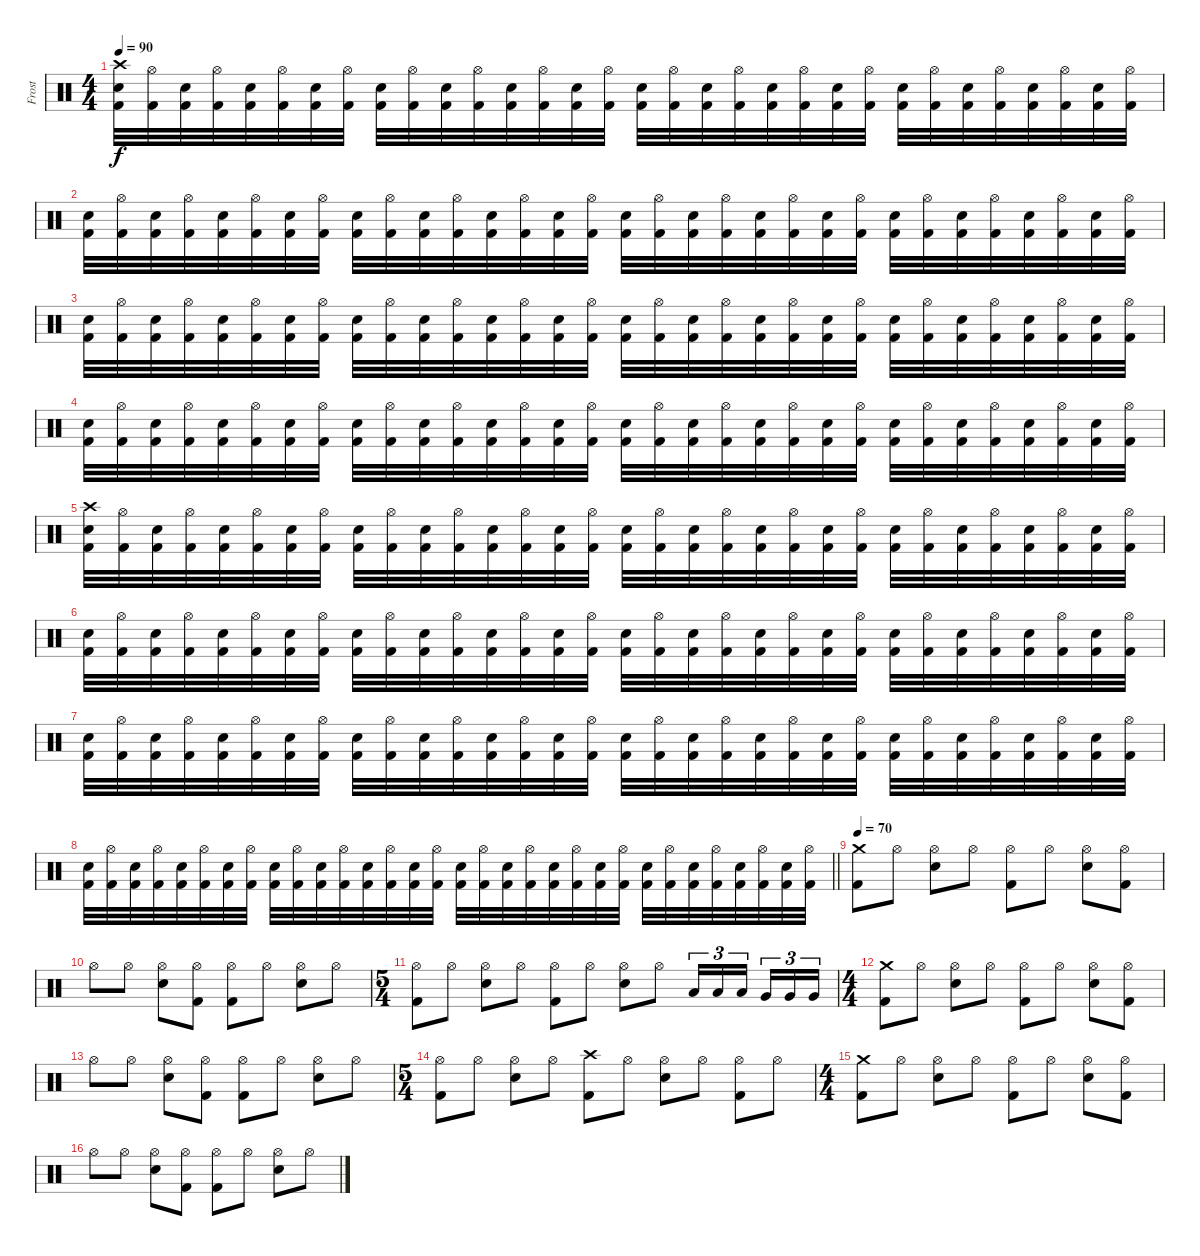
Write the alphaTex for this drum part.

\track ("Frost" "Frost") {instrument percussion}
\staff {score}
\articulation defaults
\ts (4 4)
\section ("" "")
\tempo 90
\clef neutral
\ks c
("Crash high (hit)" "Electric Snare (hit)" "Kick (hit) 2").32{dy f} ("Hi-Hat (open)" "Kick (hit) 2").32 ("Electric Snare (hit)" "Kick (hit) 2").32 ("Hi-Hat (open)" "Kick (hit) 2").32 ("Electric Snare (hit)" "Kick (hit) 2").32 ("Hi-Hat (open)" "Kick (hit) 2").32 ("Electric Snare (hit)" "Kick (hit) 2").32 ("Hi-Hat (open)" "Kick (hit) 2").32 ("Electric Snare (hit)" "Kick (hit) 2").32 ("Hi-Hat (open)" "Kick (hit) 2").32 ("Electric Snare (hit)" "Kick (hit) 2").32 ("Hi-Hat (open)" "Kick (hit) 2").32 ("Electric Snare (hit)" "Kick (hit) 2").32 ("Hi-Hat (open)" "Kick (hit) 2").32 ("Electric Snare (hit)" "Kick (hit) 2").32 ("Hi-Hat (open)" "Kick (hit) 2").32 ("Electric Snare (hit)" "Kick (hit) 2").32 ("Hi-Hat (open)" "Kick (hit) 2").32 ("Electric Snare (hit)" "Kick (hit) 2").32 ("Hi-Hat (open)" "Kick (hit) 2").32 ("Electric Snare (hit)" "Kick (hit) 2").32 ("Hi-Hat (open)" "Kick (hit) 2").32 ("Electric Snare (hit)" "Kick (hit) 2").32 ("Hi-Hat (open)" "Kick (hit) 2").32 ("Electric Snare (hit)" "Kick (hit) 2").32 ("Hi-Hat (open)" "Kick (hit) 2").32 ("Electric Snare (hit)" "Kick (hit) 2").32 ("Hi-Hat (open)" "Kick (hit) 2").32 ("Electric Snare (hit)" "Kick (hit) 2").32 ("Hi-Hat (open)" "Kick (hit) 2").32 ("Electric Snare (hit)" "Kick (hit) 2").32 ("Hi-Hat (open)" "Kick (hit) 2").32 |
("Electric Snare (hit)" "Kick (hit) 2").32 ("Hi-Hat (open)" "Kick (hit) 2").32 ("Electric Snare (hit)" "Kick (hit) 2").32 ("Hi-Hat (open)" "Kick (hit) 2").32 ("Electric Snare (hit)" "Kick (hit) 2").32 ("Hi-Hat (open)" "Kick (hit) 2").32 ("Electric Snare (hit)" "Kick (hit) 2").32 ("Hi-Hat (open)" "Kick (hit) 2").32 ("Electric Snare (hit)" "Kick (hit) 2").32 ("Hi-Hat (open)" "Kick (hit) 2").32 ("Electric Snare (hit)" "Kick (hit) 2").32 ("Hi-Hat (open)" "Kick (hit) 2").32 ("Electric Snare (hit)" "Kick (hit) 2").32 ("Hi-Hat (open)" "Kick (hit) 2").32 ("Electric Snare (hit)" "Kick (hit) 2").32 ("Hi-Hat (open)" "Kick (hit) 2").32 ("Electric Snare (hit)" "Kick (hit) 2").32 ("Hi-Hat (open)" "Kick (hit) 2").32 ("Electric Snare (hit)" "Kick (hit) 2").32 ("Hi-Hat (open)" "Kick (hit) 2").32 ("Electric Snare (hit)" "Kick (hit) 2").32 ("Hi-Hat (open)" "Kick (hit) 2").32 ("Electric Snare (hit)" "Kick (hit) 2").32 ("Hi-Hat (open)" "Kick (hit) 2").32 ("Electric Snare (hit)" "Kick (hit) 2").32 ("Hi-Hat (open)" "Kick (hit) 2").32 ("Electric Snare (hit)" "Kick (hit) 2").32 ("Hi-Hat (open)" "Kick (hit) 2").32 ("Electric Snare (hit)" "Kick (hit) 2").32 ("Hi-Hat (open)" "Kick (hit) 2").32 ("Electric Snare (hit)" "Kick (hit) 2").32 ("Hi-Hat (open)" "Kick (hit) 2").32 |
("Electric Snare (hit)" "Kick (hit) 2").32 ("Hi-Hat (open)" "Kick (hit) 2").32 ("Electric Snare (hit)" "Kick (hit) 2").32 ("Hi-Hat (open)" "Kick (hit) 2").32 ("Electric Snare (hit)" "Kick (hit) 2").32 ("Hi-Hat (open)" "Kick (hit) 2").32 ("Electric Snare (hit)" "Kick (hit) 2").32 ("Hi-Hat (open)" "Kick (hit) 2").32 ("Electric Snare (hit)" "Kick (hit) 2").32 ("Hi-Hat (open)" "Kick (hit) 2").32 ("Electric Snare (hit)" "Kick (hit) 2").32 ("Hi-Hat (open)" "Kick (hit) 2").32 ("Electric Snare (hit)" "Kick (hit) 2").32 ("Hi-Hat (open)" "Kick (hit) 2").32 ("Electric Snare (hit)" "Kick (hit) 2").32 ("Hi-Hat (open)" "Kick (hit) 2").32 ("Electric Snare (hit)" "Kick (hit) 2").32 ("Hi-Hat (open)" "Kick (hit) 2").32 ("Electric Snare (hit)" "Kick (hit) 2").32 ("Hi-Hat (open)" "Kick (hit) 2").32 ("Electric Snare (hit)" "Kick (hit) 2").32 ("Hi-Hat (open)" "Kick (hit) 2").32 ("Electric Snare (hit)" "Kick (hit) 2").32 ("Hi-Hat (open)" "Kick (hit) 2").32 ("Electric Snare (hit)" "Kick (hit) 2").32 ("Hi-Hat (open)" "Kick (hit) 2").32 ("Electric Snare (hit)" "Kick (hit) 2").32 ("Hi-Hat (open)" "Kick (hit) 2").32 ("Electric Snare (hit)" "Kick (hit) 2").32 ("Hi-Hat (open)" "Kick (hit) 2").32 ("Electric Snare (hit)" "Kick (hit) 2").32 ("Hi-Hat (open)" "Kick (hit) 2").32 |
("Electric Snare (hit)" "Kick (hit) 2").32 ("Hi-Hat (open)" "Kick (hit) 2").32 ("Electric Snare (hit)" "Kick (hit) 2").32 ("Hi-Hat (open)" "Kick (hit) 2").32 ("Electric Snare (hit)" "Kick (hit) 2").32 ("Hi-Hat (open)" "Kick (hit) 2").32 ("Electric Snare (hit)" "Kick (hit) 2").32 ("Hi-Hat (open)" "Kick (hit) 2").32 ("Electric Snare (hit)" "Kick (hit) 2").32 ("Hi-Hat (open)" "Kick (hit) 2").32 ("Electric Snare (hit)" "Kick (hit) 2").32 ("Hi-Hat (open)" "Kick (hit) 2").32 ("Electric Snare (hit)" "Kick (hit) 2").32 ("Hi-Hat (open)" "Kick (hit) 2").32 ("Electric Snare (hit)" "Kick (hit) 2").32 ("Hi-Hat (open)" "Kick (hit) 2").32 ("Electric Snare (hit)" "Kick (hit) 2").32 ("Hi-Hat (open)" "Kick (hit) 2").32 ("Electric Snare (hit)" "Kick (hit) 2").32 ("Hi-Hat (open)" "Kick (hit) 2").32 ("Electric Snare (hit)" "Kick (hit) 2").32 ("Hi-Hat (open)" "Kick (hit) 2").32 ("Electric Snare (hit)" "Kick (hit) 2").32 ("Hi-Hat (open)" "Kick (hit) 2").32 ("Electric Snare (hit)" "Kick (hit) 2").32 ("Hi-Hat (open)" "Kick (hit) 2").32 ("Electric Snare (hit)" "Kick (hit) 2").32 ("Hi-Hat (open)" "Kick (hit) 2").32 ("Electric Snare (hit)" "Kick (hit) 2").32 ("Hi-Hat (open)" "Kick (hit) 2").32 ("Electric Snare (hit)" "Kick (hit) 2").32 ("Hi-Hat (open)" "Kick (hit) 2").32 |
("Crash high (hit)" "Electric Snare (hit)" "Kick (hit) 2").32 ("Hi-Hat (open)" "Kick (hit) 2").32 ("Electric Snare (hit)" "Kick (hit) 2").32 ("Hi-Hat (open)" "Kick (hit) 2").32 ("Electric Snare (hit)" "Kick (hit) 2").32 ("Hi-Hat (open)" "Kick (hit) 2").32 ("Electric Snare (hit)" "Kick (hit) 2").32 ("Hi-Hat (open)" "Kick (hit) 2").32 ("Electric Snare (hit)" "Kick (hit) 2").32 ("Hi-Hat (open)" "Kick (hit) 2").32 ("Electric Snare (hit)" "Kick (hit) 2").32 ("Hi-Hat (open)" "Kick (hit) 2").32 ("Electric Snare (hit)" "Kick (hit) 2").32 ("Hi-Hat (open)" "Kick (hit) 2").32 ("Electric Snare (hit)" "Kick (hit) 2").32 ("Hi-Hat (open)" "Kick (hit) 2").32 ("Electric Snare (hit)" "Kick (hit) 2").32 ("Hi-Hat (open)" "Kick (hit) 2").32 ("Electric Snare (hit)" "Kick (hit) 2").32 ("Hi-Hat (open)" "Kick (hit) 2").32 ("Electric Snare (hit)" "Kick (hit) 2").32 ("Hi-Hat (open)" "Kick (hit) 2").32 ("Electric Snare (hit)" "Kick (hit) 2").32 ("Hi-Hat (open)" "Kick (hit) 2").32 ("Electric Snare (hit)" "Kick (hit) 2").32 ("Hi-Hat (open)" "Kick (hit) 2").32 ("Electric Snare (hit)" "Kick (hit) 2").32 ("Hi-Hat (open)" "Kick (hit) 2").32 ("Electric Snare (hit)" "Kick (hit) 2").32 ("Hi-Hat (open)" "Kick (hit) 2").32 ("Electric Snare (hit)" "Kick (hit) 2").32 ("Hi-Hat (open)" "Kick (hit) 2").32 |
("Electric Snare (hit)" "Kick (hit) 2").32 ("Hi-Hat (open)" "Kick (hit) 2").32 ("Electric Snare (hit)" "Kick (hit) 2").32 ("Hi-Hat (open)" "Kick (hit) 2").32 ("Electric Snare (hit)" "Kick (hit) 2").32 ("Hi-Hat (open)" "Kick (hit) 2").32 ("Electric Snare (hit)" "Kick (hit) 2").32 ("Hi-Hat (open)" "Kick (hit) 2").32 ("Electric Snare (hit)" "Kick (hit) 2").32 ("Hi-Hat (open)" "Kick (hit) 2").32 ("Electric Snare (hit)" "Kick (hit) 2").32 ("Hi-Hat (open)" "Kick (hit) 2").32 ("Electric Snare (hit)" "Kick (hit) 2").32 ("Hi-Hat (open)" "Kick (hit) 2").32 ("Electric Snare (hit)" "Kick (hit) 2").32 ("Hi-Hat (open)" "Kick (hit) 2").32 ("Electric Snare (hit)" "Kick (hit) 2").32 ("Hi-Hat (open)" "Kick (hit) 2").32 ("Electric Snare (hit)" "Kick (hit) 2").32 ("Hi-Hat (open)" "Kick (hit) 2").32 ("Electric Snare (hit)" "Kick (hit) 2").32 ("Hi-Hat (open)" "Kick (hit) 2").32 ("Electric Snare (hit)" "Kick (hit) 2").32 ("Hi-Hat (open)" "Kick (hit) 2").32 ("Electric Snare (hit)" "Kick (hit) 2").32 ("Hi-Hat (open)" "Kick (hit) 2").32 ("Electric Snare (hit)" "Kick (hit) 2").32 ("Hi-Hat (open)" "Kick (hit) 2").32 ("Electric Snare (hit)" "Kick (hit) 2").32 ("Hi-Hat (open)" "Kick (hit) 2").32 ("Electric Snare (hit)" "Kick (hit) 2").32 ("Hi-Hat (open)" "Kick (hit) 2").32 |
("Electric Snare (hit)" "Kick (hit) 2").32 ("Hi-Hat (open)" "Kick (hit) 2").32 ("Electric Snare (hit)" "Kick (hit) 2").32 ("Hi-Hat (open)" "Kick (hit) 2").32 ("Electric Snare (hit)" "Kick (hit) 2").32 ("Hi-Hat (open)" "Kick (hit) 2").32 ("Electric Snare (hit)" "Kick (hit) 2").32 ("Hi-Hat (open)" "Kick (hit) 2").32 ("Electric Snare (hit)" "Kick (hit) 2").32 ("Hi-Hat (open)" "Kick (hit) 2").32 ("Electric Snare (hit)" "Kick (hit) 2").32 ("Hi-Hat (open)" "Kick (hit) 2").32 ("Electric Snare (hit)" "Kick (hit) 2").32 ("Hi-Hat (open)" "Kick (hit) 2").32 ("Electric Snare (hit)" "Kick (hit) 2").32 ("Hi-Hat (open)" "Kick (hit) 2").32 ("Electric Snare (hit)" "Kick (hit) 2").32 ("Hi-Hat (open)" "Kick (hit) 2").32 ("Electric Snare (hit)" "Kick (hit) 2").32 ("Hi-Hat (open)" "Kick (hit) 2").32 ("Electric Snare (hit)" "Kick (hit) 2").32 ("Hi-Hat (open)" "Kick (hit) 2").32 ("Electric Snare (hit)" "Kick (hit) 2").32 ("Hi-Hat (open)" "Kick (hit) 2").32 ("Electric Snare (hit)" "Kick (hit) 2").32 ("Hi-Hat (open)" "Kick (hit) 2").32 ("Electric Snare (hit)" "Kick (hit) 2").32 ("Hi-Hat (open)" "Kick (hit) 2").32 ("Electric Snare (hit)" "Kick (hit) 2").32 ("Hi-Hat (open)" "Kick (hit) 2").32 ("Electric Snare (hit)" "Kick (hit) 2").32 ("Hi-Hat (open)" "Kick (hit) 2").32 |
\barLineRight lightlight
("Electric Snare (hit)" "Kick (hit) 2").32 ("Hi-Hat (open)" "Kick (hit) 2").32 ("Electric Snare (hit)" "Kick (hit) 2").32 ("Hi-Hat (open)" "Kick (hit) 2").32 ("Electric Snare (hit)" "Kick (hit) 2").32 ("Hi-Hat (open)" "Kick (hit) 2").32 ("Electric Snare (hit)" "Kick (hit) 2").32 ("Hi-Hat (open)" "Kick (hit) 2").32 ("Electric Snare (hit)" "Kick (hit) 2").32 ("Hi-Hat (open)" "Kick (hit) 2").32 ("Electric Snare (hit)" "Kick (hit) 2").32 ("Hi-Hat (open)" "Kick (hit) 2").32 ("Electric Snare (hit)" "Kick (hit) 2").32 ("Hi-Hat (open)" "Kick (hit) 2").32 ("Electric Snare (hit)" "Kick (hit) 2").32 ("Hi-Hat (open)" "Kick (hit) 2").32 ("Electric Snare (hit)" "Kick (hit) 2").32 ("Hi-Hat (open)" "Kick (hit) 2").32 ("Electric Snare (hit)" "Kick (hit) 2").32 ("Hi-Hat (open)" "Kick (hit) 2").32 ("Electric Snare (hit)" "Kick (hit) 2").32 ("Hi-Hat (open)" "Kick (hit) 2").32 ("Electric Snare (hit)" "Kick (hit) 2").32 ("Hi-Hat (open)" "Kick (hit) 2").32 ("Electric Snare (hit)" "Kick (hit) 2").32 ("Hi-Hat (open)" "Kick (hit) 2").32 ("Electric Snare (hit)" "Kick (hit) 2").32 ("Hi-Hat (open)" "Kick (hit) 2").32 ("Electric Snare (hit)" "Kick (hit) 2").32 ("Hi-Hat (open)" "Kick (hit) 2").32 ("Electric Snare (hit)" "Kick (hit) 2").32 ("Hi-Hat (open)" "Kick (hit) 2").32 |
\section ("" "")
\tempo 70
("Crash medium (hit)" "Kick (hit) 2").8 "Hi-Hat (open)".8 ("Hi-Hat (open)" "Electric Snare (hit)").8 "Hi-Hat (open)".8 ("Hi-Hat (open)" "Kick (hit) 2").8 "Hi-Hat (open)".8 ("Hi-Hat (open)" "Electric Snare (hit)").8 ("Hi-Hat (open)" "Kick (hit) 2").8 |
"Hi-Hat (open)".8 "Hi-Hat (open)".8 ("Hi-Hat (open)" "Electric Snare (hit)").8 ("Hi-Hat (open)" "Kick (hit) 2").8 ("Hi-Hat (open)" "Kick (hit) 2").8 "Hi-Hat (open)".8 ("Hi-Hat (open)" "Electric Snare (hit)").8 "Hi-Hat (open)".8 |
\ts (5 4)
("Hi-Hat (open)" "Kick (hit) 2").8 "Hi-Hat (open)".8 ("Hi-Hat (open)" "Electric Snare (hit)").8 "Hi-Hat (open)".8 ("Hi-Hat (open)" "Kick (hit) 2").8 "Hi-Hat (open)".8 ("Hi-Hat (open)" "Electric Snare (hit)").8 "Hi-Hat (open)".8 "Low Tom (hit)".16{tu (3 2)} "Low Tom (hit)".16{tu (3 2)} "Low Tom (hit)".16{tu (3 2) beam splitsecondary} "Very Low Tom (hit)".16{tu (3 2)} "Very Low Tom (hit)".16{tu (3 2)} "Very Low Tom (hit)".16{tu (3 2)} |
\ts (4 4)
("Crash medium (hit)" "Kick (hit) 2").8 "Hi-Hat (open)".8 ("Hi-Hat (open)" "Electric Snare (hit)").8 "Hi-Hat (open)".8 ("Hi-Hat (open)" "Kick (hit) 2").8 "Hi-Hat (open)".8 ("Hi-Hat (open)" "Electric Snare (hit)").8 ("Hi-Hat (open)" "Kick (hit) 2").8 |
"Hi-Hat (open)".8 "Hi-Hat (open)".8 ("Hi-Hat (open)" "Electric Snare (hit)").8 ("Hi-Hat (open)" "Kick (hit) 2").8 ("Hi-Hat (open)" "Kick (hit) 2").8 "Hi-Hat (open)".8 ("Hi-Hat (open)" "Electric Snare (hit)").8 "Hi-Hat (open)".8 |
\ts (5 4)
("Hi-Hat (open)" "Kick (hit) 2").8 "Hi-Hat (open)".8 ("Hi-Hat (open)" "Electric Snare (hit)").8 "Hi-Hat (open)".8 ("Crash high (hit)" "Kick (hit) 2").8 "Hi-Hat (open)".8 ("Hi-Hat (open)" "Electric Snare (hit)").8 "Hi-Hat (open)".8 ("Hi-Hat (open)" "Kick (hit) 2").8 "Hi-Hat (open)".8 |
\ts (4 4)
("Crash medium (hit)" "Kick (hit) 2").8 "Hi-Hat (open)".8 ("Hi-Hat (open)" "Electric Snare (hit)").8 "Hi-Hat (open)".8 ("Hi-Hat (open)" "Kick (hit) 2").8 "Hi-Hat (open)".8 ("Hi-Hat (open)" "Electric Snare (hit)").8 ("Hi-Hat (open)" "Kick (hit) 2").8 |
"Hi-Hat (open)".8 "Hi-Hat (open)".8 ("Hi-Hat (open)" "Electric Snare (hit)").8 ("Hi-Hat (open)" "Kick (hit) 2").8 ("Hi-Hat (open)" "Kick (hit) 2").8 "Hi-Hat (open)".8 ("Hi-Hat (open)" "Electric Snare (hit)").8 "Hi-Hat (open)".8
